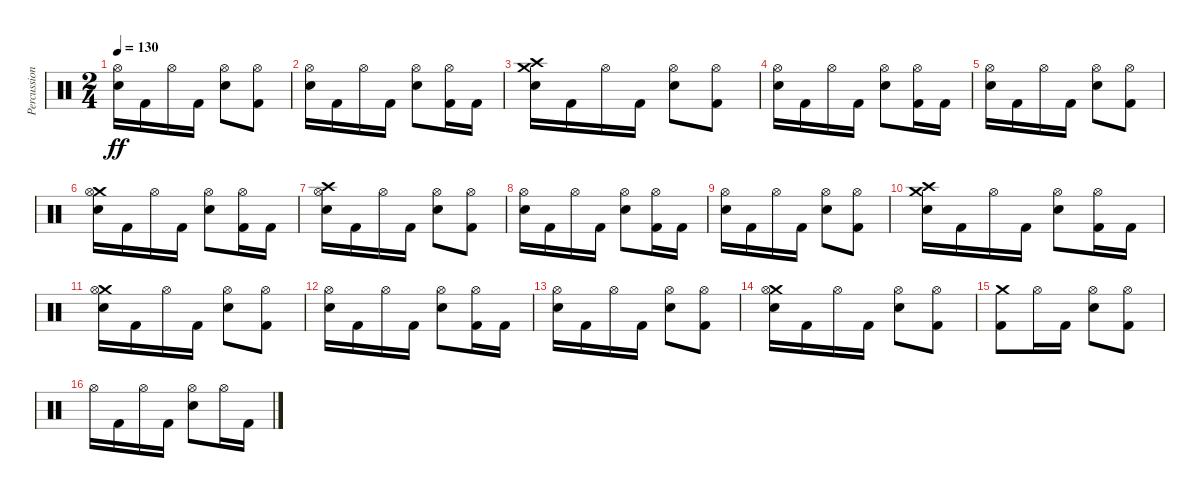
\track ("Percussion" "Percussion") {instrument percussion}
\staff {score}
\articulation defaults
\ts (2 4)
\tempo 130
\clef neutral
\ks c
("Hi-Hat (open)" "Snare (hit) 2").16{dy ff} "Kick (hit) 2".16 "Hi-Hat (open)".16 "Kick (hit) 2".16 ("Hi-Hat (open)" "Snare (hit) 2").8 ("Hi-Hat (open)" "Kick (hit) 2").8 |
("Hi-Hat (open)" "Snare (hit) 2").16 "Kick (hit) 2".16 "Hi-Hat (open)".16 "Kick (hit) 2".16 ("Hi-Hat (open)" "Snare (hit) 2").8 ("Hi-Hat (open)" "Kick (hit) 2").16 "Kick (hit) 2".16 |
("Crash high (hit)" "Crash medium (hit)" "Snare (hit) 2").16 "Kick (hit) 2".16 "Hi-Hat (open)".16 "Kick (hit) 2".16 ("Hi-Hat (open)" "Snare (hit) 2").8 ("Hi-Hat (open)" "Kick (hit) 2").8 |
("Hi-Hat (open)" "Snare (hit) 2").16 "Kick (hit) 2".16 "Hi-Hat (open)".16 "Kick (hit) 2".16 ("Hi-Hat (open)" "Snare (hit) 2").8 ("Hi-Hat (open)" "Kick (hit) 2").16 "Kick (hit) 2".16 |
("Hi-Hat (open)" "Snare (hit) 2").16 "Kick (hit) 2".16 "Hi-Hat (open)".16 "Kick (hit) 2".16 ("Hi-Hat (open)" "Snare (hit) 2").8 ("Hi-Hat (open)" "Kick (hit) 2").8 |
("Crash medium (hit)" "Hi-Hat (open)" "Snare (hit) 2").16 "Kick (hit) 2".16 "Hi-Hat (open)".16 "Kick (hit) 2".16 ("Hi-Hat (open)" "Snare (hit) 2").8 ("Hi-Hat (open)" "Kick (hit) 2").16 "Kick (hit) 2".16 |
("Crash high (hit)" "Hi-Hat (open)" "Snare (hit) 2").16 "Kick (hit) 2".16 "Hi-Hat (open)".16 "Kick (hit) 2".16 ("Hi-Hat (open)" "Snare (hit) 2").8 ("Hi-Hat (open)" "Kick (hit) 2").8 |
("Hi-Hat (open)" "Snare (hit) 2").16 "Kick (hit) 2".16 "Hi-Hat (open)".16 "Kick (hit) 2".16 ("Hi-Hat (open)" "Snare (hit) 2").8 ("Hi-Hat (open)" "Kick (hit) 2").16 "Kick (hit) 2".16 |
("Hi-Hat (open)" "Snare (hit) 2").16 "Kick (hit) 2".16 "Hi-Hat (open)".16 "Kick (hit) 2".16 ("Hi-Hat (open)" "Snare (hit) 2").8 ("Hi-Hat (open)" "Kick (hit) 2").8 |
("Crash medium (hit)" "Crash high (hit)" "Snare (hit) 2").16 "Kick (hit) 2".16 "Hi-Hat (open)".16 "Kick (hit) 2".16 ("Hi-Hat (open)" "Snare (hit) 2").8 ("Hi-Hat (open)" "Kick (hit) 2").16 "Kick (hit) 2".16 |
("Crash medium (hit)" "Hi-Hat (open)" "Snare (hit) 2").16 "Kick (hit) 2".16 "Hi-Hat (open)".16 "Kick (hit) 2".16 ("Hi-Hat (open)" "Snare (hit) 2").8 ("Hi-Hat (open)" "Kick (hit) 2").8 |
("Hi-Hat (open)" "Snare (hit) 2").16 "Kick (hit) 2".16 "Hi-Hat (open)".16 "Kick (hit) 2".16 ("Hi-Hat (open)" "Snare (hit) 2").8 ("Hi-Hat (open)" "Kick (hit) 2").16 "Kick (hit) 2".16 |
("Hi-Hat (open)" "Snare (hit) 2").16 "Kick (hit) 2".16 "Hi-Hat (open)".16 "Kick (hit) 2".16 ("Hi-Hat (open)" "Snare (hit) 2").8 ("Hi-Hat (open)" "Kick (hit) 2").8 |
("Crash medium (hit)" "Hi-Hat (open)" "Snare (hit) 2").16 "Kick (hit) 2".16 "Hi-Hat (open)".16 "Kick (hit) 2".16 ("Hi-Hat (open)" "Snare (hit) 2").8 ("Hi-Hat (open)" "Kick (hit) 2").8 |
("Crash medium (hit)" "Kick (hit) 2").8 "Hi-Hat (open)".16 "Kick (hit) 2".16 ("Hi-Hat (open)" "Snare (hit) 2").8 ("Hi-Hat (open)" "Kick (hit) 2").8 |
"Hi-Hat (open)".16 "Kick (hit) 2".16 "Hi-Hat (open)".16 "Kick (hit) 2".16 ("Hi-Hat (open)" "Snare (hit) 2").8 "Hi-Hat (open)".16 "Kick (hit) 2".16
